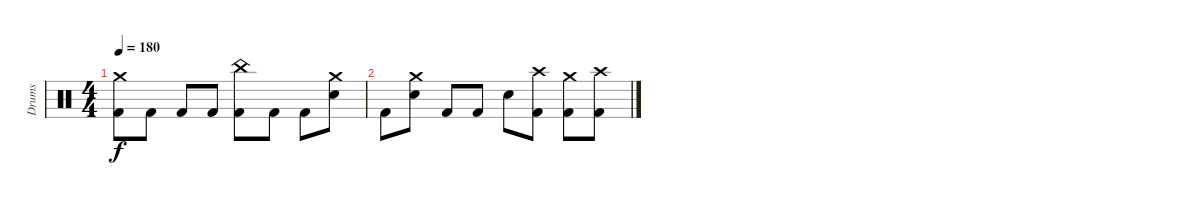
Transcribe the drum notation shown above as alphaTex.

\track ("Drums" "Drums") {instrument percussion}
\staff
\articulation defaults
\ts (4 4)
\tempo 180
\clef neutral
\ks c
("Crash medium (hit)" "Kick (hit) 2").8{dy f} "Kick (hit) 2".8 "Kick (hit) 2".8 "Kick (hit) 2".8 ("China (hit)" "Kick (hit) 2").8 "Kick (hit) 2".8 "Kick (hit) 2".8 ("Crash medium (hit)" "Electric Snare (hit)").8 |
"Kick (hit) 2".8 ("Crash medium (hit)" "Electric Snare (hit)").8 "Kick (hit) 2".8 "Kick (hit) 2".8 "Electric Snare (hit)".8 ("Crash high (hit)" "Kick (hit) 2").8 ("Crash medium (hit)" "Kick (hit) 2").8 ("Crash high (hit)" "Kick (hit) 2").8
